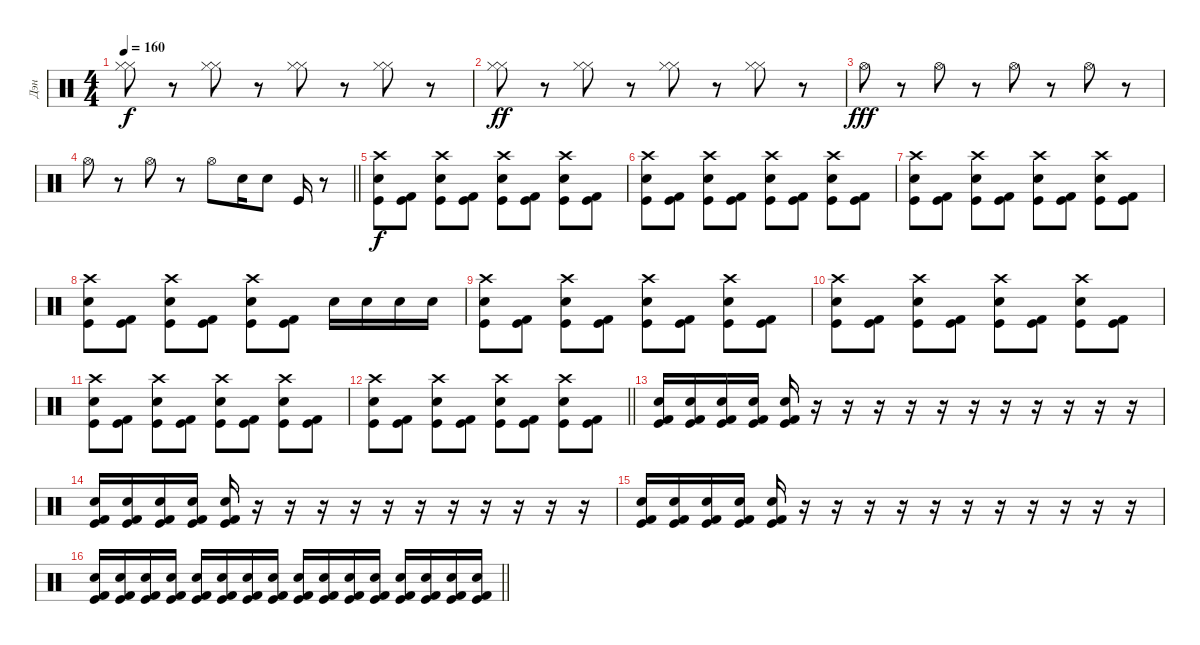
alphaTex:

\track ("Дэн" "Дэн") {instrument percussion}
\staff {score}
\articulation defaults
\ts (4 4)
\tempo 160
\clef neutral
\ks c
("Hi-Hat (closed)" "Hi-Hat (closed)").8{dy f} r.8 ("Hi-Hat (closed)" "Hi-Hat (closed)").8 r.8 ("Hi-Hat (closed)" "Hi-Hat (closed)").8 r.8 ("Hi-Hat (closed)" "Hi-Hat (closed)").8 r.8 |
("Hi-Hat (closed)" "Hi-Hat (closed)").8{dy ff} r.8 ("Hi-Hat (closed)" "Hi-Hat (closed)").8 r.8 ("Hi-Hat (closed)" "Hi-Hat (closed)").8 r.8 ("Hi-Hat (closed)" "Hi-Hat (closed)").8 r.8 |
"Hi-Hat (open)".8{dy fff} r.8 "Hi-Hat (open)".8 r.8 "Hi-Hat (open)".8 r.8 "Hi-Hat (open)".8 r.8 |
\barLineRight lightlight "Hi-Hat (open)".8
r.8 "Hi-Hat (open)".8 r.8 "Hi-Hat (open)".8 "Electric Snare (hit)".16 "Electric Snare (hit)".8 "Kick (hit)".16 r.8 |
("Crash high (hit)" "Electric Snare (hit)" "Kick (hit)").8{dy f} ("Kick (hit)" "Kick (hit) 2").8 ("Crash high (hit)" "Electric Snare (hit)" "Kick (hit)").8 ("Kick (hit)" "Kick (hit) 2").8 ("Crash high (hit)" "Electric Snare (hit)" "Kick (hit)").8 ("Kick (hit)" "Kick (hit) 2").8 ("Crash high (hit)" "Electric Snare (hit)" "Kick (hit)").8 ("Kick (hit)" "Kick (hit) 2").8 |
("Crash high (hit)" "Electric Snare (hit)" "Kick (hit)").8 ("Kick (hit)" "Kick (hit) 2").8 ("Crash high (hit)" "Electric Snare (hit)" "Kick (hit)").8 ("Kick (hit)" "Kick (hit) 2").8 ("Crash high (hit)" "Electric Snare (hit)" "Kick (hit)").8 ("Kick (hit)" "Kick (hit) 2").8 ("Crash high (hit)" "Electric Snare (hit)" "Kick (hit)").8 ("Kick (hit)" "Kick (hit) 2").8 |
("Crash high (hit)" "Electric Snare (hit)" "Kick (hit)").8 ("Kick (hit)" "Kick (hit) 2").8 ("Crash high (hit)" "Electric Snare (hit)" "Kick (hit)").8 ("Kick (hit)" "Kick (hit) 2").8 ("Crash high (hit)" "Electric Snare (hit)" "Kick (hit)").8 ("Kick (hit)" "Kick (hit) 2").8 ("Crash high (hit)" "Electric Snare (hit)" "Kick (hit)").8 ("Kick (hit)" "Kick (hit) 2").8 |
("Crash high (hit)" "Electric Snare (hit)" "Kick (hit)").8 ("Kick (hit)" "Kick (hit) 2").8 ("Crash high (hit)" "Electric Snare (hit)" "Kick (hit)").8 ("Kick (hit)" "Kick (hit) 2").8 ("Crash high (hit)" "Electric Snare (hit)" "Kick (hit)").8 ("Kick (hit)" "Kick (hit) 2").8 "Electric Snare (hit)".16 "Electric Snare (hit)".16 "Electric Snare (hit)".16 "Electric Snare (hit)".16 |
("Crash high (hit)" "Electric Snare (hit)" "Kick (hit)").8 ("Kick (hit)" "Kick (hit) 2").8 ("Crash high (hit)" "Electric Snare (hit)" "Kick (hit)").8 ("Kick (hit)" "Kick (hit) 2").8 ("Crash high (hit)" "Electric Snare (hit)" "Kick (hit)").8 ("Kick (hit)" "Kick (hit) 2").8 ("Crash high (hit)" "Electric Snare (hit)" "Kick (hit)").8 ("Kick (hit)" "Kick (hit) 2").8 |
("Crash high (hit)" "Electric Snare (hit)" "Kick (hit)").8 ("Kick (hit)" "Kick (hit) 2").8 ("Crash high (hit)" "Electric Snare (hit)" "Kick (hit)").8 ("Kick (hit)" "Kick (hit) 2").8 ("Crash high (hit)" "Electric Snare (hit)" "Kick (hit)").8 ("Kick (hit)" "Kick (hit) 2").8 ("Crash high (hit)" "Electric Snare (hit)" "Kick (hit)").8 ("Kick (hit)" "Kick (hit) 2").8 |
("Crash high (hit)" "Electric Snare (hit)" "Kick (hit)").8 ("Kick (hit)" "Kick (hit) 2").8 ("Crash high (hit)" "Electric Snare (hit)" "Kick (hit)").8 ("Kick (hit)" "Kick (hit) 2").8 ("Crash high (hit)" "Electric Snare (hit)" "Kick (hit)").8 ("Kick (hit)" "Kick (hit) 2").8 ("Crash high (hit)" "Electric Snare (hit)" "Kick (hit)").8 ("Kick (hit)" "Kick (hit) 2").8 |
\barLineRight lightlight
("Crash high (hit)" "Electric Snare (hit)" "Kick (hit)").8 ("Kick (hit)" "Kick (hit) 2").8 ("Crash high (hit)" "Electric Snare (hit)" "Kick (hit)").8 ("Kick (hit)" "Kick (hit) 2").8 ("Crash high (hit)" "Electric Snare (hit)" "Kick (hit)").8 ("Kick (hit)" "Kick (hit) 2").8 ("Crash high (hit)" "Electric Snare (hit)" "Kick (hit)").8 ("Kick (hit)" "Kick (hit) 2").8 |
("Electric Snare (hit)" "Kick (hit)" "Kick (hit) 2").16 ("Electric Snare (hit)" "Kick (hit)" "Kick (hit) 2").16 ("Electric Snare (hit)" "Kick (hit)" "Kick (hit) 2").16 ("Electric Snare (hit)" "Kick (hit)" "Kick (hit) 2").16 ("Electric Snare (hit)" "Kick (hit)" "Kick (hit) 2").16 r.16 r.16 r.16 r.16 r.16 r.16 r.16 r.16 r.16 r.16 r.16 |
("Electric Snare (hit)" "Kick (hit)" "Kick (hit) 2").16 ("Electric Snare (hit)" "Kick (hit)" "Kick (hit) 2").16 ("Electric Snare (hit)" "Kick (hit)" "Kick (hit) 2").16 ("Electric Snare (hit)" "Kick (hit)" "Kick (hit) 2").16 ("Electric Snare (hit)" "Kick (hit)" "Kick (hit) 2").16 r.16 r.16 r.16 r.16 r.16 r.16 r.16 r.16 r.16 r.16 r.16 |
("Electric Snare (hit)" "Kick (hit)" "Kick (hit) 2").16 ("Electric Snare (hit)" "Kick (hit)" "Kick (hit) 2").16 ("Electric Snare (hit)" "Kick (hit)" "Kick (hit) 2").16 ("Electric Snare (hit)" "Kick (hit)" "Kick (hit) 2").16 ("Electric Snare (hit)" "Kick (hit)" "Kick (hit) 2").16 r.16 r.16 r.16 r.16 r.16 r.16 r.16 r.16 r.16 r.16 r.16 |
\barLineRight lightlight
("Electric Snare (hit)" "Kick (hit)" "Kick (hit) 2").16 ("Electric Snare (hit)" "Kick (hit)" "Kick (hit) 2").16 ("Electric Snare (hit)" "Kick (hit)" "Kick (hit) 2").16 ("Electric Snare (hit)" "Kick (hit)" "Kick (hit) 2").16 ("Electric Snare (hit)" "Kick (hit)" "Kick (hit) 2").16 ("Electric Snare (hit)" "Kick (hit)" "Kick (hit) 2").16 ("Electric Snare (hit)" "Kick (hit)" "Kick (hit) 2").16 ("Electric Snare (hit)" "Kick (hit)" "Kick (hit) 2").16 ("Electric Snare (hit)" "Kick (hit)" "Kick (hit) 2").16 ("Electric Snare (hit)" "Kick (hit)" "Kick (hit) 2").16 ("Electric Snare (hit)" "Kick (hit)" "Kick (hit) 2").16 ("Electric Snare (hit)" "Kick (hit)" "Kick (hit) 2").16 ("Electric Snare (hit)" "Kick (hit)" "Kick (hit) 2").16 ("Electric Snare (hit)" "Kick (hit)" "Kick (hit) 2").16 ("Electric Snare (hit)" "Kick (hit)" "Kick (hit) 2").16 ("Electric Snare (hit)" "Kick (hit)" "Kick (hit) 2").16
